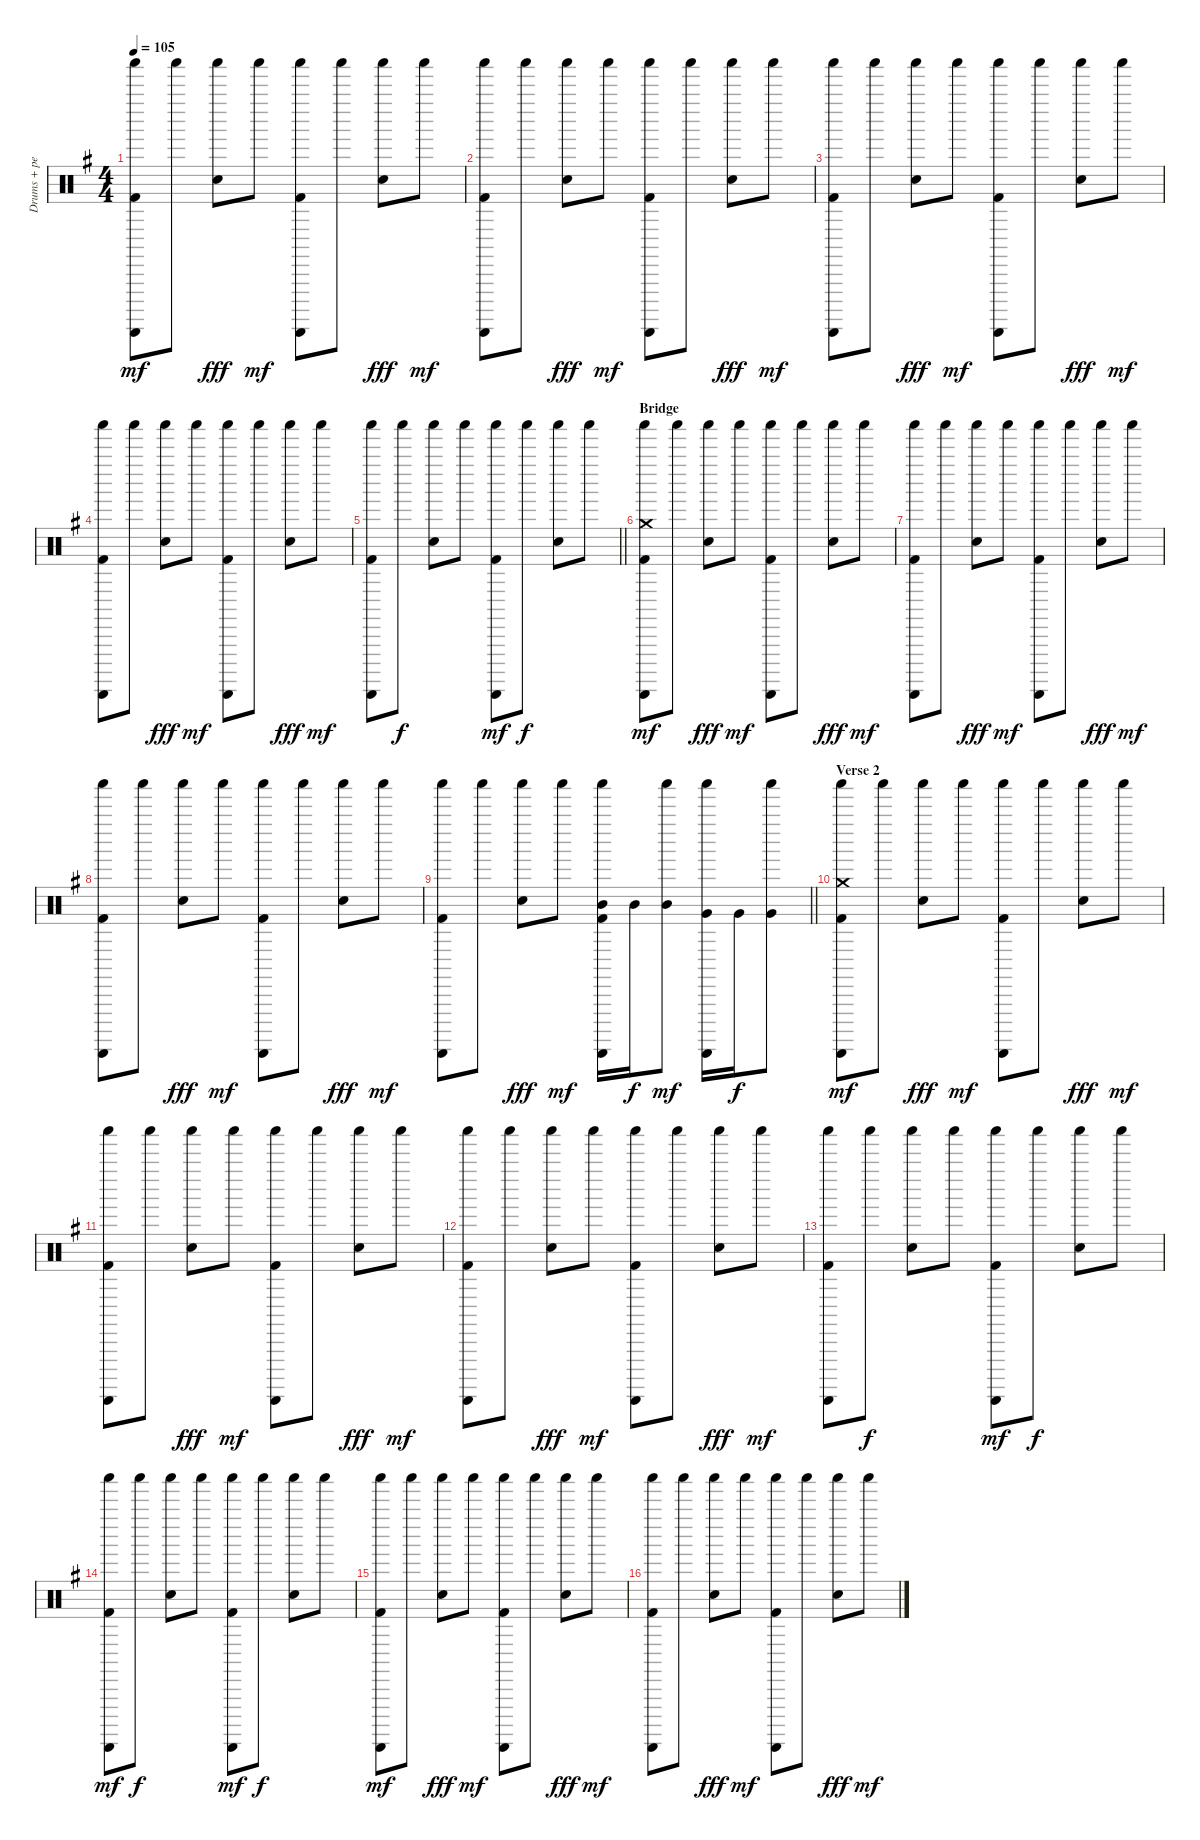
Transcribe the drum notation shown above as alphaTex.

\track ("Drums + percussion" "Drums + pe") {instrument percussion}
\staff {score}
\articulation defaults
\ts (4 4)
\tempo 105
\clef neutral
\ks g
("Shaker (hit)" "Guiro (scrap-return)" "Kick (hit) 2").8{dy mf} "Shaker (hit)".8 ("Shaker (hit)" "Snare (hit) 2").8{dy fff} "Shaker (hit)".8{dy mf} ("Shaker (hit)" "Guiro (scrap-return)" "Kick (hit) 2").8 "Shaker (hit)".8 ("Shaker (hit)" "Snare (hit) 2").8{dy fff} "Shaker (hit)".8{dy mf} |
("Shaker (hit)" "Guiro (scrap-return)" "Kick (hit) 2").8 "Shaker (hit)".8 ("Shaker (hit)" "Snare (hit) 2").8{dy fff} "Shaker (hit)".8{dy mf} ("Shaker (hit)" "Guiro (scrap-return)" "Kick (hit) 2").8 "Shaker (hit)".8 ("Shaker (hit)" "Snare (hit) 2").8{dy fff} "Shaker (hit)".8{dy mf} |
("Shaker (hit)" "Guiro (scrap-return)" "Kick (hit) 2").8 "Shaker (hit)".8 ("Shaker (hit)" "Snare (hit) 2").8{dy fff} "Shaker (hit)".8{dy mf} ("Shaker (hit)" "Guiro (scrap-return)" "Kick (hit) 2").8 "Shaker (hit)".8 ("Shaker (hit)" "Snare (hit) 2").8{dy fff} "Shaker (hit)".8{dy mf} |
("Shaker (hit)" "Guiro (scrap-return)" "Kick (hit) 2").8 "Shaker (hit)".8 ("Shaker (hit)" "Snare (hit) 2").8{dy fff} "Shaker (hit)".8{dy mf} ("Shaker (hit)" "Guiro (scrap-return)" "Kick (hit) 2").8 "Shaker (hit)".8 ("Shaker (hit)" "Snare (hit) 2").8{dy fff} "Shaker (hit)".8{dy mf} |
\barLineRight lightlight
("Shaker (hit)" "Guiro (scrap-return)" "Kick (hit) 2").8 "Shaker (hit)".8{dy f} ("Shaker (hit)" "Snare (hit) 2").8 "Shaker (hit)".8 ("Shaker (hit)" "Guiro (scrap-return)" "Kick (hit) 2").8{dy mf} "Shaker (hit)".8{dy f} ("Shaker (hit)" "Snare (hit) 2").8 "Shaker (hit)".8 |
\section ("" "Bridge")
("Shaker (hit)" "Guiro (scrap-return)" "Crash medium (hit)" "Kick (hit) 2").8{dy mf} "Shaker (hit)".8 ("Shaker (hit)" "Snare (hit) 2").8{dy fff} "Shaker (hit)".8{dy mf} ("Shaker (hit)" "Guiro (scrap-return)" "Kick (hit) 2").8 "Shaker (hit)".8 ("Shaker (hit)" "Snare (hit) 2").8{dy fff} "Shaker (hit)".8{dy mf} |
("Shaker (hit)" "Guiro (scrap-return)" "Kick (hit) 2").8 "Shaker (hit)".8 ("Shaker (hit)" "Snare (hit) 2").8{dy fff} "Shaker (hit)".8{dy mf} ("Shaker (hit)" "Guiro (scrap-return)" "Kick (hit) 2").8 "Shaker (hit)".8 ("Shaker (hit)" "Snare (hit) 2").8{dy fff} "Shaker (hit)".8{dy mf} |
("Shaker (hit)" "Guiro (scrap-return)" "Kick (hit) 2").8 "Shaker (hit)".8 ("Shaker (hit)" "Snare (hit) 2").8{dy fff} "Shaker (hit)".8{dy mf} ("Shaker (hit)" "Guiro (scrap-return)" "Kick (hit) 2").8 "Shaker (hit)".8 ("Shaker (hit)" "Snare (hit) 2").8{dy fff} "Shaker (hit)".8{dy mf} |
\barLineRight lightlight
("Shaker (hit)" "Guiro (scrap-return)" "Kick (hit) 2").8 "Shaker (hit)".8 ("Shaker (hit)" "Snare (hit) 2").8{dy fff} "Shaker (hit)".8{dy mf} ("Shaker (hit)" "Guiro (scrap-return)" "Mid Tom (hit)" "Kick (hit) 2").16 "Mid Tom (hit)".16{dy f} ("Shaker (hit)" "Mid Tom (hit)").8{dy mf} ("Shaker (hit)" "Guiro (scrap-return)" "Very Low Tom (hit)").16 "Very Low Tom (hit)".16{dy f} ("Shaker (hit)" "Very Low Tom (hit)").8 |
\section ("" "Verse 2")
("Shaker (hit)" "Guiro (scrap-return)" "Crash medium (hit)" "Kick (hit) 2").8{dy mf} "Shaker (hit)".8 ("Shaker (hit)" "Snare (hit) 2").8{dy fff} "Shaker (hit)".8{dy mf} ("Shaker (hit)" "Guiro (scrap-return)" "Kick (hit) 2").8 "Shaker (hit)".8 ("Shaker (hit)" "Snare (hit) 2").8{dy fff} "Shaker (hit)".8{dy mf} |
("Shaker (hit)" "Guiro (scrap-return)" "Kick (hit) 2").8 "Shaker (hit)".8 ("Shaker (hit)" "Snare (hit) 2").8{dy fff} "Shaker (hit)".8{dy mf} ("Shaker (hit)" "Guiro (scrap-return)" "Kick (hit) 2").8 "Shaker (hit)".8 ("Shaker (hit)" "Snare (hit) 2").8{dy fff} "Shaker (hit)".8{dy mf} |
("Shaker (hit)" "Guiro (scrap-return)" "Kick (hit) 2").8 "Shaker (hit)".8 ("Shaker (hit)" "Snare (hit) 2").8{dy fff} "Shaker (hit)".8{dy mf} ("Shaker (hit)" "Guiro (scrap-return)" "Kick (hit) 2").8 "Shaker (hit)".8 ("Shaker (hit)" "Snare (hit) 2").8{dy fff} "Shaker (hit)".8{dy mf} |
("Shaker (hit)" "Guiro (scrap-return)" "Kick (hit) 2").8 "Shaker (hit)".8{dy f} ("Shaker (hit)" "Snare (hit) 2").8 "Shaker (hit)".8 ("Shaker (hit)" "Guiro (scrap-return)" "Kick (hit) 2").8{dy mf} "Shaker (hit)".8{dy f} ("Shaker (hit)" "Snare (hit) 2").8 "Shaker (hit)".8 |
("Shaker (hit)" "Guiro (scrap-return)" "Kick (hit) 2").8{dy mf} "Shaker (hit)".8{dy f} ("Shaker (hit)" "Snare (hit) 2").8 "Shaker (hit)".8 ("Shaker (hit)" "Guiro (scrap-return)" "Kick (hit) 2").8{dy mf} "Shaker (hit)".8{dy f} ("Shaker (hit)" "Snare (hit) 2").8 "Shaker (hit)".8 |
("Shaker (hit)" "Guiro (scrap-return)" "Kick (hit) 2").8{dy mf} "Shaker (hit)".8 ("Shaker (hit)" "Snare (hit) 2").8{dy fff} "Shaker (hit)".8{dy mf} ("Shaker (hit)" "Guiro (scrap-return)" "Kick (hit) 2").8 "Shaker (hit)".8 ("Shaker (hit)" "Snare (hit) 2").8{dy fff} "Shaker (hit)".8{dy mf} |
("Shaker (hit)" "Guiro (scrap-return)" "Kick (hit) 2").8 "Shaker (hit)".8 ("Shaker (hit)" "Snare (hit) 2").8{dy fff} "Shaker (hit)".8{dy mf} ("Shaker (hit)" "Guiro (scrap-return)" "Kick (hit) 2").8 "Shaker (hit)".8 ("Shaker (hit)" "Snare (hit) 2").8{dy fff} "Shaker (hit)".8{dy mf}
